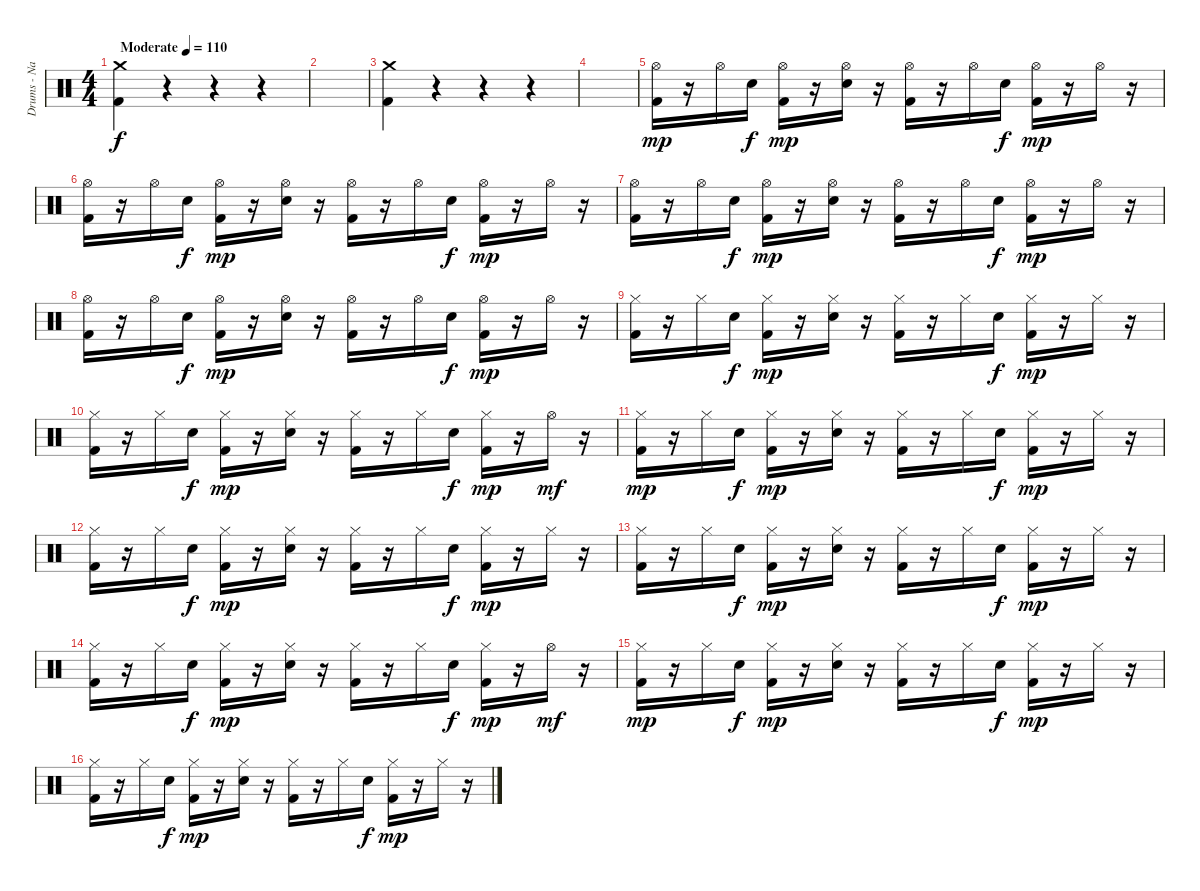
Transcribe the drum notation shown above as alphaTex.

\track ("Drums - Nathan" "Drums - Na") {instrument percussion}
\staff {score}
\articulation defaults
\ts (4 4)
\tempo (110 "Moderate")
\clef neutral
\ks c
("Crash medium (hit)" "Kick (hit) 2").4{dy f} r.4 r.4 r.4 |
|
("Crash medium (hit)" "Kick (hit) 2").4 r.4 r.4 r.4 |
|
("Hi-Hat (open)" "Kick (hit) 2").16{dy mp} r.16 "Hi-Hat (open)".16 "Electric Snare (hit)".16{dy f} ("Hi-Hat (open)" "Kick (hit) 2").16{dy mp} r.16 ("Hi-Hat (open)" "Electric Snare (hit)").16 r.16 ("Hi-Hat (open)" "Kick (hit) 2").16 r.16 "Hi-Hat (open)".16 "Electric Snare (hit)".16{dy f} ("Hi-Hat (open)" "Kick (hit) 2").16{dy mp} r.16 "Hi-Hat (open)".16 r.16 |
("Hi-Hat (open)" "Kick (hit) 2").16 r.16 "Hi-Hat (open)".16 "Electric Snare (hit)".16{dy f} ("Hi-Hat (open)" "Kick (hit) 2").16{dy mp} r.16 ("Hi-Hat (open)" "Electric Snare (hit)").16 r.16 ("Hi-Hat (open)" "Kick (hit) 2").16 r.16 "Hi-Hat (open)".16 "Electric Snare (hit)".16{dy f} ("Hi-Hat (open)" "Kick (hit) 2").16{dy mp} r.16 "Hi-Hat (open)".16 r.16 |
("Hi-Hat (open)" "Kick (hit) 2").16 r.16 "Hi-Hat (open)".16 "Electric Snare (hit)".16{dy f} ("Hi-Hat (open)" "Kick (hit) 2").16{dy mp} r.16 ("Hi-Hat (open)" "Electric Snare (hit)").16 r.16 ("Hi-Hat (open)" "Kick (hit) 2").16 r.16 "Hi-Hat (open)".16 "Electric Snare (hit)".16{dy f} ("Hi-Hat (open)" "Kick (hit) 2").16{dy mp} r.16 "Hi-Hat (open)".16 r.16 |
("Hi-Hat (open)" "Kick (hit) 2").16 r.16 "Hi-Hat (open)".16 "Electric Snare (hit)".16{dy f} ("Hi-Hat (open)" "Kick (hit) 2").16{dy mp} r.16 ("Hi-Hat (open)" "Electric Snare (hit)").16 r.16 ("Hi-Hat (open)" "Kick (hit) 2").16 r.16 "Hi-Hat (open)".16 "Electric Snare (hit)".16{dy f} ("Hi-Hat (open)" "Kick (hit) 2").16{dy mp} r.16 "Hi-Hat (open)".16 r.16 |
("Hi-Hat (closed)" "Kick (hit) 2").16 r.16 "Hi-Hat (closed)".16 "Electric Snare (hit)".16{dy f} ("Hi-Hat (closed)" "Kick (hit) 2").16{dy mp} r.16 ("Hi-Hat (closed)" "Electric Snare (hit)").16 r.16 ("Hi-Hat (closed)" "Kick (hit) 2").16 r.16 "Hi-Hat (closed)".16 "Electric Snare (hit)".16{dy f} ("Hi-Hat (closed)" "Kick (hit) 2").16{dy mp} r.16 "Hi-Hat (closed)".16 r.16 |
("Hi-Hat (closed)" "Kick (hit) 2").16 r.16 "Hi-Hat (closed)".16 "Electric Snare (hit)".16{dy f} ("Hi-Hat (closed)" "Kick (hit) 2").16{dy mp} r.16 ("Hi-Hat (closed)" "Electric Snare (hit)").16 r.16 ("Hi-Hat (closed)" "Kick (hit) 2").16 r.16 "Hi-Hat (closed)".16 "Electric Snare (hit)".16{dy f} ("Hi-Hat (closed)" "Kick (hit) 2").16{dy mp} r.16 "Hi-Hat (open)".16{dy mf} r.16 |
("Hi-Hat (closed)" "Kick (hit) 2").16{dy mp} r.16 "Hi-Hat (closed)".16 "Electric Snare (hit)".16{dy f} ("Hi-Hat (closed)" "Kick (hit) 2").16{dy mp} r.16 ("Hi-Hat (closed)" "Electric Snare (hit)").16 r.16 ("Hi-Hat (closed)" "Kick (hit) 2").16 r.16 "Hi-Hat (closed)".16 "Electric Snare (hit)".16{dy f} ("Hi-Hat (closed)" "Kick (hit) 2").16{dy mp} r.16 "Hi-Hat (closed)".16 r.16 |
("Hi-Hat (closed)" "Kick (hit) 2").16 r.16 "Hi-Hat (closed)".16 "Electric Snare (hit)".16{dy f} ("Hi-Hat (closed)" "Kick (hit) 2").16{dy mp} r.16 ("Hi-Hat (closed)" "Electric Snare (hit)").16 r.16 ("Hi-Hat (closed)" "Kick (hit) 2").16 r.16 "Hi-Hat (closed)".16 "Electric Snare (hit)".16{dy f} ("Hi-Hat (closed)" "Kick (hit) 2").16{dy mp} r.16 "Hi-Hat (closed)".16 r.16 |
("Hi-Hat (closed)" "Kick (hit) 2").16 r.16 "Hi-Hat (closed)".16 "Electric Snare (hit)".16{dy f} ("Hi-Hat (closed)" "Kick (hit) 2").16{dy mp} r.16 ("Hi-Hat (closed)" "Electric Snare (hit)").16 r.16 ("Hi-Hat (closed)" "Kick (hit) 2").16 r.16 "Hi-Hat (closed)".16 "Electric Snare (hit)".16{dy f} ("Hi-Hat (closed)" "Kick (hit) 2").16{dy mp} r.16 "Hi-Hat (closed)".16 r.16 |
("Hi-Hat (closed)" "Kick (hit) 2").16 r.16 "Hi-Hat (closed)".16 "Electric Snare (hit)".16{dy f} ("Hi-Hat (closed)" "Kick (hit) 2").16{dy mp} r.16 ("Hi-Hat (closed)" "Electric Snare (hit)").16 r.16 ("Hi-Hat (closed)" "Kick (hit) 2").16 r.16 "Hi-Hat (closed)".16 "Electric Snare (hit)".16{dy f} ("Hi-Hat (closed)" "Kick (hit) 2").16{dy mp} r.16 "Hi-Hat (open)".16{dy mf} r.16 |
("Hi-Hat (closed)" "Kick (hit) 2").16{dy mp} r.16 "Hi-Hat (closed)".16 "Electric Snare (hit)".16{dy f} ("Hi-Hat (closed)" "Kick (hit) 2").16{dy mp} r.16 ("Hi-Hat (closed)" "Electric Snare (hit)").16 r.16 ("Hi-Hat (closed)" "Kick (hit) 2").16 r.16 "Hi-Hat (closed)".16 "Electric Snare (hit)".16{dy f} ("Hi-Hat (closed)" "Kick (hit) 2").16{dy mp} r.16 "Hi-Hat (closed)".16 r.16 |
("Hi-Hat (closed)" "Kick (hit) 2").16 r.16 "Hi-Hat (closed)".16 "Electric Snare (hit)".16{dy f} ("Hi-Hat (closed)" "Kick (hit) 2").16{dy mp} r.16 ("Hi-Hat (closed)" "Electric Snare (hit)").16 r.16 ("Hi-Hat (closed)" "Kick (hit) 2").16 r.16 "Hi-Hat (closed)".16 "Electric Snare (hit)".16{dy f} ("Hi-Hat (closed)" "Kick (hit) 2").16{dy mp} r.16 "Hi-Hat (closed)".16 r.16
